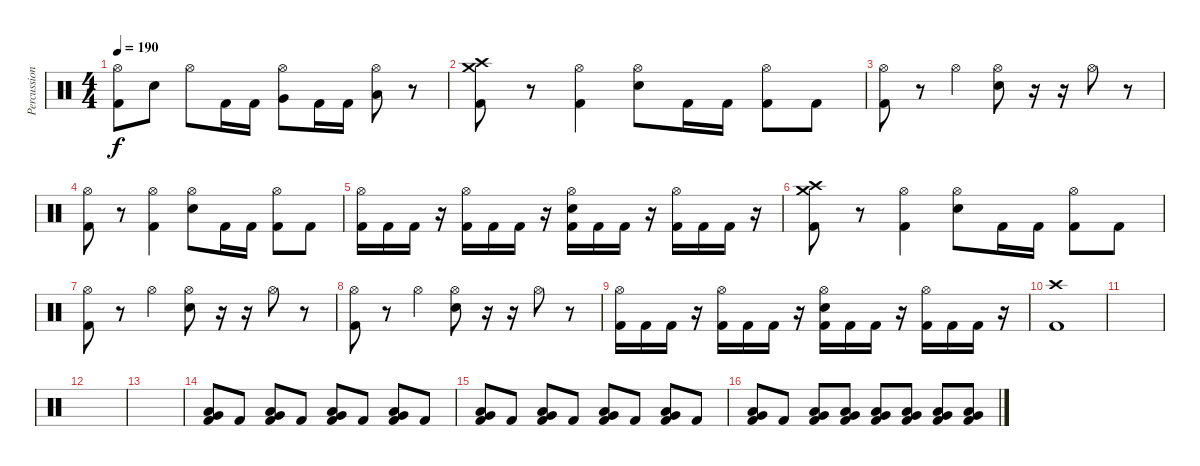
\track ("Percussion" "Percussion") {instrument percussion}
\staff {score}
\articulation defaults
\ts (4 4)
\tempo 190
\clef neutral
\ks c
("Hi-Hat (open)" "Kick (hit) 2").8{dy f} "Electric Snare (hit)".8 "Hi-Hat (open)".8 "Kick (hit) 2".16 "Kick (hit) 2".16 ("Hi-Hat (open)" "Very Low Tom (hit)").8 "Kick (hit) 2".16 "Kick (hit) 2".16 ("Hi-Hat (open)" "Low Floor Tom (hit)").8 r.8 |
("Crash medium (hit)" "Crash high (hit)" "Kick (hit) 2").8 r.8 ("Hi-Hat (open)" "Kick (hit) 2").4 ("Hi-Hat (open)" "Electric Snare (hit)").8 "Kick (hit) 2".16 "Kick (hit) 2".16 ("Hi-Hat (open)" "Kick (hit) 2").8 "Kick (hit) 2".8 |
("Hi-Hat (open)" "Kick (hit) 2").8 r.8 "Hi-Hat (open)".4 ("Hi-Hat (open)" "Electric Snare (hit)").8 r.16 r.16 "Hi-Hat (open)".8 r.8 |
("Hi-Hat (open)" "Kick (hit) 2").8 r.8 ("Hi-Hat (open)" "Kick (hit) 2").4 ("Hi-Hat (open)" "Electric Snare (hit)").8 "Kick (hit) 2".16 "Kick (hit) 2".16 ("Hi-Hat (open)" "Kick (hit) 2").8 "Kick (hit) 2".8 |
("Hi-Hat (open)" "Kick (hit) 2").16 "Kick (hit) 2".16 "Kick (hit) 2".16 r.16 ("Hi-Hat (open)" "Kick (hit) 2").16 "Kick (hit) 2".16 "Kick (hit) 2".16 r.16 ("Hi-Hat (open)" "Electric Snare (hit)" "Kick (hit) 2").16 "Kick (hit) 2".16 "Kick (hit) 2".16 r.16 ("Hi-Hat (open)" "Kick (hit) 2").16 "Kick (hit) 2".16 "Kick (hit) 2".16 r.16 |
("Crash medium (hit)" "Crash high (hit)" "Kick (hit) 2").8 r.8 ("Hi-Hat (open)" "Kick (hit) 2").4 ("Hi-Hat (open)" "Electric Snare (hit)").8 "Kick (hit) 2".16 "Kick (hit) 2".16 ("Hi-Hat (open)" "Kick (hit) 2").8 "Kick (hit) 2".8 |
("Hi-Hat (open)" "Kick (hit) 2").8 r.8 "Hi-Hat (open)".4 ("Hi-Hat (open)" "Electric Snare (hit)").8 r.16 r.16 "Hi-Hat (open)".8 r.8 |
("Hi-Hat (open)" "Kick (hit) 2").8 r.8 "Hi-Hat (open)".4 ("Hi-Hat (open)" "Electric Snare (hit)").8 r.16 r.16 "Hi-Hat (open)".8 r.8 |
("Hi-Hat (open)" "Kick (hit) 2").16 "Kick (hit) 2".16 "Kick (hit) 2".16 r.16 ("Hi-Hat (open)" "Kick (hit) 2").16 "Kick (hit) 2".16 "Kick (hit) 2".16 r.16 ("Hi-Hat (open)" "Electric Snare (hit)" "Kick (hit) 2").16 "Kick (hit) 2".16 "Kick (hit) 2".16 r.16 ("Hi-Hat (open)" "Kick (hit) 2").16 "Kick (hit) 2".16 "Kick (hit) 2".16 r.16 |
("Crash high (hit)" "Kick (hit) 2").1 |
|
|
|
("Very Low Tom (hit)" "Low Floor Tom (hit)" "Kick (hit) 2").8 "Kick (hit) 2".8 ("Very Low Tom (hit)" "Low Floor Tom (hit)" "Kick (hit) 2").8 "Kick (hit) 2".8 ("Very Low Tom (hit)" "Low Floor Tom (hit)" "Kick (hit) 2").8 "Kick (hit) 2".8 ("Very Low Tom (hit)" "Low Floor Tom (hit)" "Kick (hit) 2").8 "Kick (hit) 2".8 |
("Very Low Tom (hit)" "Low Floor Tom (hit)" "Kick (hit) 2").8 "Kick (hit) 2".8 ("Very Low Tom (hit)" "Low Floor Tom (hit)" "Kick (hit) 2").8 "Kick (hit) 2".8 ("Very Low Tom (hit)" "Low Floor Tom (hit)" "Kick (hit) 2").8 "Kick (hit) 2".8 ("Very Low Tom (hit)" "Low Floor Tom (hit)" "Kick (hit) 2").8 "Kick (hit) 2".8 |
("Very Low Tom (hit)" "Low Floor Tom (hit)" "Kick (hit) 2").8 "Kick (hit) 2".8 ("Very Low Tom (hit)" "Low Floor Tom (hit)" "Kick (hit) 2").8 ("Very Low Tom (hit)" "Low Floor Tom (hit)" "Kick (hit) 2").8 ("Very Low Tom (hit)" "Low Floor Tom (hit)" "Kick (hit) 2").8 ("Very Low Tom (hit)" "Low Floor Tom (hit)" "Kick (hit) 2").8 ("Very Low Tom (hit)" "Low Floor Tom (hit)" "Kick (hit) 2").8 ("Very Low Tom (hit)" "Low Floor Tom (hit)" "Kick (hit) 2").8
